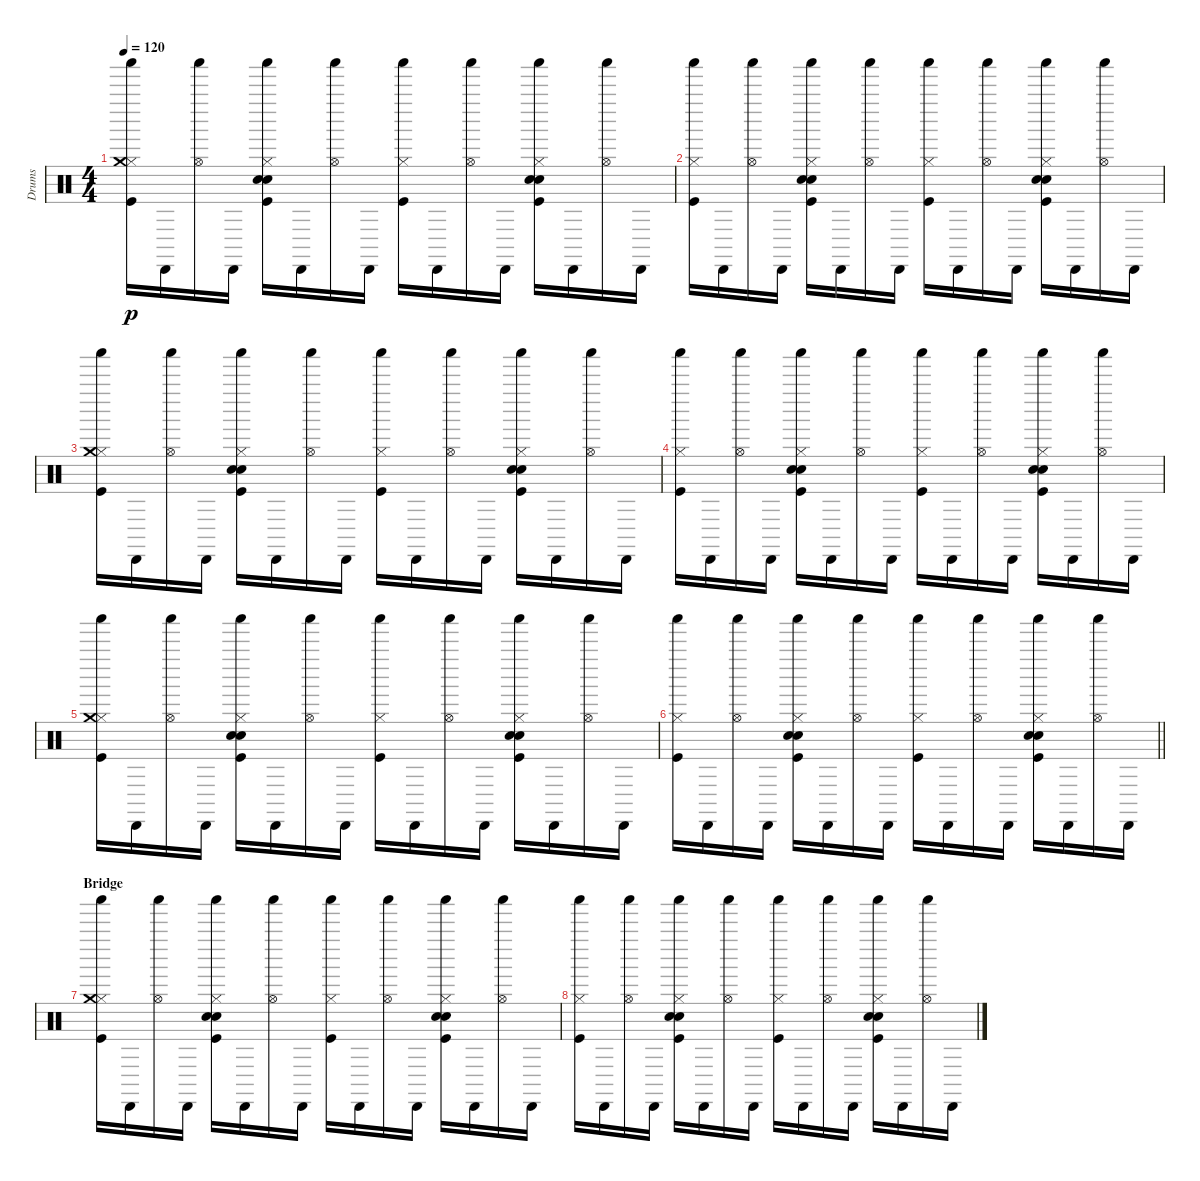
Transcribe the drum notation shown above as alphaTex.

\track ("Drums" "Drums") {instrument percussion}
\staff {score}
\articulation defaults
\ts (4 4)
\tempo 120
\clef neutral
\ks c
("Kick (hit)" "Hi-Hat (closed)" "Crash medium (hit)" "Shaker (hit)").16{dy p} "Cabasa (hit)".16 ("Hi-Hat (open)" "Shaker (hit)").16 "Cabasa (hit)".16 ("Kick (hit)" "Snare (hit) 2" "Electric Snare (hit)" "Hi-Hat (closed)" "Shaker (hit)").16 "Cabasa (hit)".16 ("Hi-Hat (open)" "Shaker (hit)").16 "Cabasa (hit)".16 ("Kick (hit)" "Hi-Hat (closed)" "Shaker (hit)").16 "Cabasa (hit)".16 ("Hi-Hat (open)" "Shaker (hit)").16 "Cabasa (hit)".16 ("Kick (hit)" "Snare (hit) 2" "Electric Snare (hit)" "Hi-Hat (closed)" "Shaker (hit)").16 "Cabasa (hit)".16 ("Hi-Hat (open)" "Shaker (hit)").16 "Cabasa (hit)".16 |
("Kick (hit)" "Hi-Hat (closed)" "Shaker (hit)").16 "Cabasa (hit)".16 ("Hi-Hat (open)" "Shaker (hit)").16 "Cabasa (hit)".16 ("Kick (hit)" "Snare (hit) 2" "Electric Snare (hit)" "Hi-Hat (closed)" "Shaker (hit)").16 "Cabasa (hit)".16 ("Hi-Hat (open)" "Shaker (hit)").16 "Cabasa (hit)".16 ("Kick (hit)" "Hi-Hat (closed)" "Shaker (hit)").16 "Cabasa (hit)".16 ("Hi-Hat (open)" "Shaker (hit)").16 "Cabasa (hit)".16 ("Kick (hit)" "Snare (hit) 2" "Electric Snare (hit)" "Hi-Hat (closed)" "Shaker (hit)").16 "Cabasa (hit)".16 ("Hi-Hat (open)" "Shaker (hit)").16 "Cabasa (hit)".16 |
("Kick (hit)" "Hi-Hat (closed)" "Crash medium (hit)" "Shaker (hit)").16 "Cabasa (hit)".16 ("Hi-Hat (open)" "Shaker (hit)").16 "Cabasa (hit)".16 ("Kick (hit)" "Snare (hit) 2" "Electric Snare (hit)" "Hi-Hat (closed)" "Shaker (hit)").16 "Cabasa (hit)".16 ("Hi-Hat (open)" "Shaker (hit)").16 "Cabasa (hit)".16 ("Kick (hit)" "Hi-Hat (closed)" "Shaker (hit)").16 "Cabasa (hit)".16 ("Hi-Hat (open)" "Shaker (hit)").16 "Cabasa (hit)".16 ("Kick (hit)" "Snare (hit) 2" "Electric Snare (hit)" "Hi-Hat (closed)" "Shaker (hit)").16 "Cabasa (hit)".16 ("Hi-Hat (open)" "Shaker (hit)").16 "Cabasa (hit)".16 |
("Kick (hit)" "Hi-Hat (closed)" "Shaker (hit)").16 "Cabasa (hit)".16 ("Hi-Hat (open)" "Shaker (hit)").16 "Cabasa (hit)".16 ("Kick (hit)" "Snare (hit) 2" "Electric Snare (hit)" "Hi-Hat (closed)" "Shaker (hit)").16 "Cabasa (hit)".16 ("Hi-Hat (open)" "Shaker (hit)").16 "Cabasa (hit)".16 ("Kick (hit)" "Hi-Hat (closed)" "Shaker (hit)").16 "Cabasa (hit)".16 ("Hi-Hat (open)" "Shaker (hit)").16 "Cabasa (hit)".16 ("Kick (hit)" "Snare (hit) 2" "Electric Snare (hit)" "Hi-Hat (closed)" "Shaker (hit)").16 "Cabasa (hit)".16 ("Hi-Hat (open)" "Shaker (hit)").16 "Cabasa (hit)".16 |
("Kick (hit)" "Hi-Hat (closed)" "Crash medium (hit)" "Shaker (hit)").16 "Cabasa (hit)".16 ("Hi-Hat (open)" "Shaker (hit)").16 "Cabasa (hit)".16 ("Kick (hit)" "Snare (hit) 2" "Electric Snare (hit)" "Hi-Hat (closed)" "Shaker (hit)").16 "Cabasa (hit)".16 ("Hi-Hat (open)" "Shaker (hit)").16 "Cabasa (hit)".16 ("Kick (hit)" "Hi-Hat (closed)" "Shaker (hit)").16 "Cabasa (hit)".16 ("Hi-Hat (open)" "Shaker (hit)").16 "Cabasa (hit)".16 ("Kick (hit)" "Snare (hit) 2" "Electric Snare (hit)" "Hi-Hat (closed)" "Shaker (hit)").16 "Cabasa (hit)".16 ("Hi-Hat (open)" "Shaker (hit)").16 "Cabasa (hit)".16 |
\barLineRight lightlight
("Kick (hit)" "Hi-Hat (closed)" "Shaker (hit)").16 "Cabasa (hit)".16 ("Hi-Hat (open)" "Shaker (hit)").16 "Cabasa (hit)".16 ("Kick (hit)" "Snare (hit) 2" "Electric Snare (hit)" "Hi-Hat (closed)" "Shaker (hit)").16 "Cabasa (hit)".16 ("Hi-Hat (open)" "Shaker (hit)").16 "Cabasa (hit)".16 ("Kick (hit)" "Hi-Hat (closed)" "Shaker (hit)").16 "Cabasa (hit)".16 ("Hi-Hat (open)" "Shaker (hit)").16 "Cabasa (hit)".16 ("Kick (hit)" "Snare (hit) 2" "Electric Snare (hit)" "Hi-Hat (closed)" "Shaker (hit)").16 "Cabasa (hit)".16 ("Hi-Hat (open)" "Shaker (hit)").16 "Cabasa (hit)".16 |
\section ("" "Bridge")
("Kick (hit)" "Hi-Hat (closed)" "Crash medium (hit)" "Shaker (hit)").16 "Cabasa (hit)".16 ("Hi-Hat (open)" "Shaker (hit)").16 "Cabasa (hit)".16 ("Kick (hit)" "Snare (hit) 2" "Electric Snare (hit)" "Hi-Hat (closed)" "Shaker (hit)").16 "Cabasa (hit)".16 ("Hi-Hat (open)" "Shaker (hit)").16 "Cabasa (hit)".16 ("Kick (hit)" "Hi-Hat (closed)" "Shaker (hit)").16 "Cabasa (hit)".16 ("Hi-Hat (open)" "Shaker (hit)").16 "Cabasa (hit)".16 ("Kick (hit)" "Snare (hit) 2" "Electric Snare (hit)" "Hi-Hat (closed)" "Shaker (hit)").16 "Cabasa (hit)".16 ("Hi-Hat (open)" "Shaker (hit)").16 "Cabasa (hit)".16 |
("Kick (hit)" "Hi-Hat (closed)" "Shaker (hit)").16 "Cabasa (hit)".16 ("Hi-Hat (open)" "Shaker (hit)").16 "Cabasa (hit)".16 ("Kick (hit)" "Snare (hit) 2" "Electric Snare (hit)" "Hi-Hat (closed)" "Shaker (hit)").16 "Cabasa (hit)".16 ("Hi-Hat (open)" "Shaker (hit)").16 "Cabasa (hit)".16 ("Kick (hit)" "Hi-Hat (closed)" "Shaker (hit)").16 "Cabasa (hit)".16 ("Hi-Hat (open)" "Shaker (hit)").16 "Cabasa (hit)".16 ("Kick (hit)" "Snare (hit) 2" "Electric Snare (hit)" "Hi-Hat (closed)" "Shaker (hit)").16 "Cabasa (hit)".16 ("Hi-Hat (open)" "Shaker (hit)").16 "Cabasa (hit)".16
